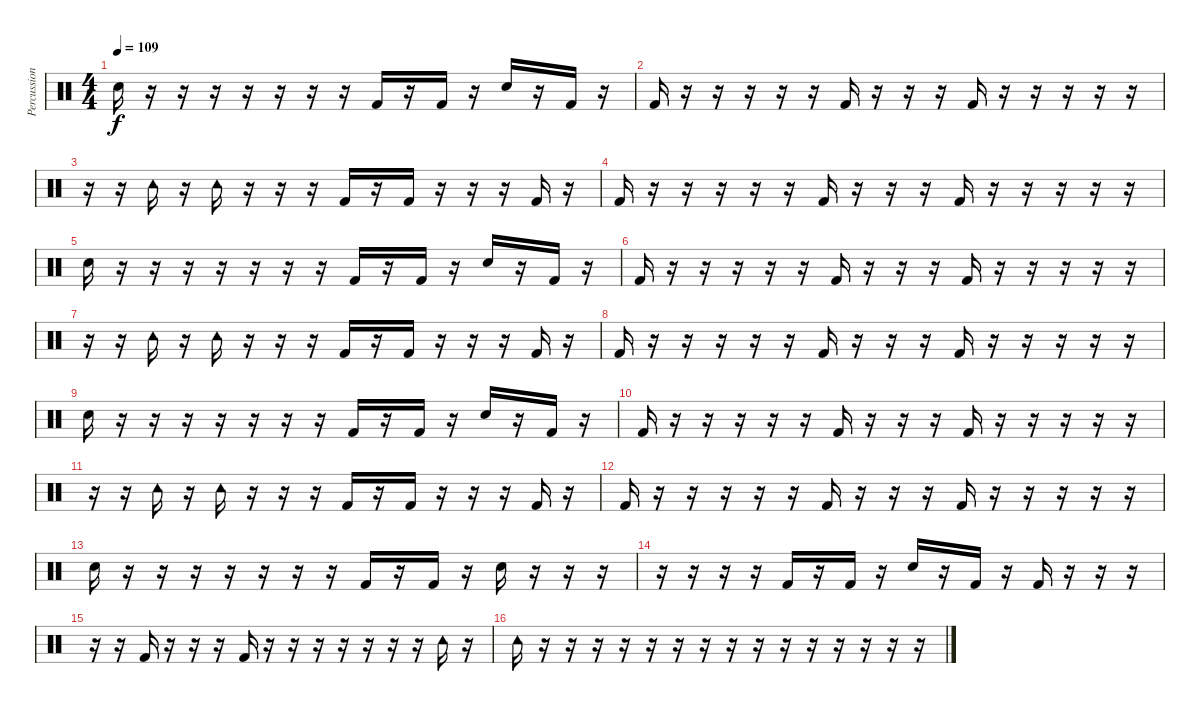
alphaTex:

\track ("Percussion" "Percussion") {instrument percussion}
\staff {score}
\articulation defaults
\ts (4 4)
\tempo 109
\clef neutral
\ks c "Electric Snare (hit)".16{dy f}
r.16 r.16 r.16 r.16 r.16 r.16 r.16 "Kick (hit) 2".16 r.16 "Kick (hit) 2".16 r.16 "Electric Snare (hit)".16 r.16 "Kick (hit) 2".16 r.16 |
"Kick (hit) 2".16 r.16 r.16 r.16 r.16 r.16 "Kick (hit) 2".16 r.16 r.16 r.16 "Kick (hit) 2".16 r.16 r.16 r.16 r.16 r.16 |
r.16 r.16 "Tambourine (hit)".16 r.16 "Tambourine (hit)".16 r.16 r.16 r.16 "Kick (hit) 2".16 r.16 "Kick (hit) 2".16 r.16 r.16 r.16 "Kick (hit) 2".16 r.16 |
"Kick (hit) 2".16 r.16 r.16 r.16 r.16 r.16 "Kick (hit) 2".16 r.16 r.16 r.16 "Kick (hit) 2".16 r.16 r.16 r.16 r.16 r.16 |
"Electric Snare (hit)".16 r.16 r.16 r.16 r.16 r.16 r.16 r.16 "Kick (hit) 2".16 r.16 "Kick (hit) 2".16 r.16 "Electric Snare (hit)".16 r.16 "Kick (hit) 2".16 r.16 |
"Kick (hit) 2".16 r.16 r.16 r.16 r.16 r.16 "Kick (hit) 2".16 r.16 r.16 r.16 "Kick (hit) 2".16 r.16 r.16 r.16 r.16 r.16 |
r.16 r.16 "Tambourine (hit)".16 r.16 "Tambourine (hit)".16 r.16 r.16 r.16 "Kick (hit) 2".16 r.16 "Kick (hit) 2".16 r.16 r.16 r.16 "Kick (hit) 2".16 r.16 |
"Kick (hit) 2".16 r.16 r.16 r.16 r.16 r.16 "Kick (hit) 2".16 r.16 r.16 r.16 "Kick (hit) 2".16 r.16 r.16 r.16 r.16 r.16 |
"Electric Snare (hit)".16 r.16 r.16 r.16 r.16 r.16 r.16 r.16 "Kick (hit) 2".16 r.16 "Kick (hit) 2".16 r.16 "Electric Snare (hit)".16 r.16 "Kick (hit) 2".16 r.16 |
"Kick (hit) 2".16 r.16 r.16 r.16 r.16 r.16 "Kick (hit) 2".16 r.16 r.16 r.16 "Kick (hit) 2".16 r.16 r.16 r.16 r.16 r.16 |
r.16 r.16 "Tambourine (hit)".16 r.16 "Tambourine (hit)".16 r.16 r.16 r.16 "Kick (hit) 2".16 r.16 "Kick (hit) 2".16 r.16 r.16 r.16 "Kick (hit) 2".16 r.16 |
"Kick (hit) 2".16 r.16 r.16 r.16 r.16 r.16 "Kick (hit) 2".16 r.16 r.16 r.16 "Kick (hit) 2".16 r.16 r.16 r.16 r.16 r.16 |
"Electric Snare (hit)".16 r.16 r.16 r.16 r.16 r.16 r.16 r.16 "Kick (hit) 2".16 r.16 "Kick (hit) 2".16 r.16 "Electric Snare (hit)".16 r.16 r.16 r.16 |
r.16 r.16 r.16 r.16 "Kick (hit) 2".16 r.16 "Kick (hit) 2".16 r.16 "Electric Snare (hit)".16 r.16 "Kick (hit) 2".16 r.16 "Kick (hit) 2".16 r.16 r.16 r.16 |
r.16 r.16 "Kick (hit) 2".16 r.16 r.16 r.16 "Kick (hit) 2".16 r.16 r.16 r.16 r.16 r.16 r.16 r.16 "Tambourine (hit)".16 r.16 |
"Tambourine (hit)".16 r.16 r.16 r.16 r.16 r.16 r.16 r.16 r.16 r.16 r.16 r.16 r.16 r.16 r.16 r.16
